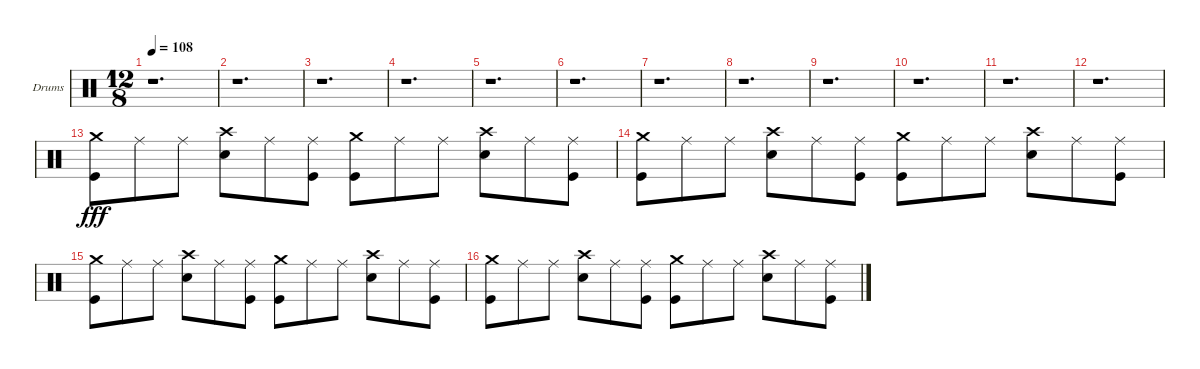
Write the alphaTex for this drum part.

\defaultSystemsLayout 4
\bracketExtendMode groupsimilarinstruments
\firstSystemTrackNameOrientation horizontal
\otherSystemsTrackNameOrientation horizontal
\track ("Drumkit" "Drums") {instrument percussion}
\staff {score}
\articulation defaults
\ts (12 8)
\tempo 108
\clef neutral
\scale
0.474178
\ks c
r.1{d dy fff} |
\scale
0.262911 r.1{d} |
\scale
0.262911 r.1{d} |
\scale
0.333333 r.1{d} |
\scale
0.333333 r.1{d} |
\scale
0.333333 r.1{d} |
\scale
0.333333 r.1{d} |
\scale
0.333333 r.1{d} |
\scale
0.333333 r.1{d} |
\scale
0.333333 r.1{d} |
\scale
0.333333 r.1{d} |
\scale
0.333333 r.1{d} |
\scale
0.333333 ("Crash medium (hit)" "Kick (hit)").8 "Ride (middle)".8 "Ride (middle)".8 ("Crash high (hit)" "Snare (hit) 2").8 "Ride (middle)".8 ("Ride (middle)" "Kick (hit)").8 ("Crash medium (hit)" "Kick (hit)").8 "Ride (middle)".8 "Ride (middle)".8 ("Crash high (hit)" "Snare (hit) 2").8 "Ride (middle)".8 ("Ride (middle)" "Kick (hit)").8 |
\scale
0.333333 ("Crash medium (hit)" "Kick (hit)").8 "Ride (middle)".8 "Ride (middle)".8 ("Crash high (hit)" "Snare (hit) 2").8 "Ride (middle)".8 ("Ride (middle)" "Kick (hit)").8 ("Crash medium (hit)" "Kick (hit)").8 "Ride (middle)".8 "Ride (middle)".8 ("Crash high (hit)" "Snare (hit) 2").8 "Ride (middle)".8 ("Ride (middle)" "Kick (hit)").8 |
\scale
0.333333 ("Crash medium (hit)" "Kick (hit)").8 "Ride (middle)".8 "Ride (middle)".8 ("Crash high (hit)" "Snare (hit) 2").8 "Ride (middle)".8 ("Ride (middle)" "Kick (hit)").8 ("Crash medium (hit)" "Kick (hit)").8 "Ride (middle)".8 "Ride (middle)".8 ("Crash high (hit)" "Snare (hit) 2").8 "Ride (middle)".8 ("Ride (middle)" "Kick (hit)").8 |
\scale
0.333333 ("Crash medium (hit)" "Kick (hit)").8 "Ride (middle)".8 "Ride (middle)".8 ("Crash high (hit)" "Snare (hit) 2").8 "Ride (middle)".8 ("Ride (middle)" "Kick (hit)").8 ("Crash medium (hit)" "Kick (hit)").8 "Ride (middle)".8 "Ride (middle)".8 ("Crash high (hit)" "Snare (hit) 2").8 "Ride (middle)".8 ("Ride (middle)" "Kick (hit)").8
